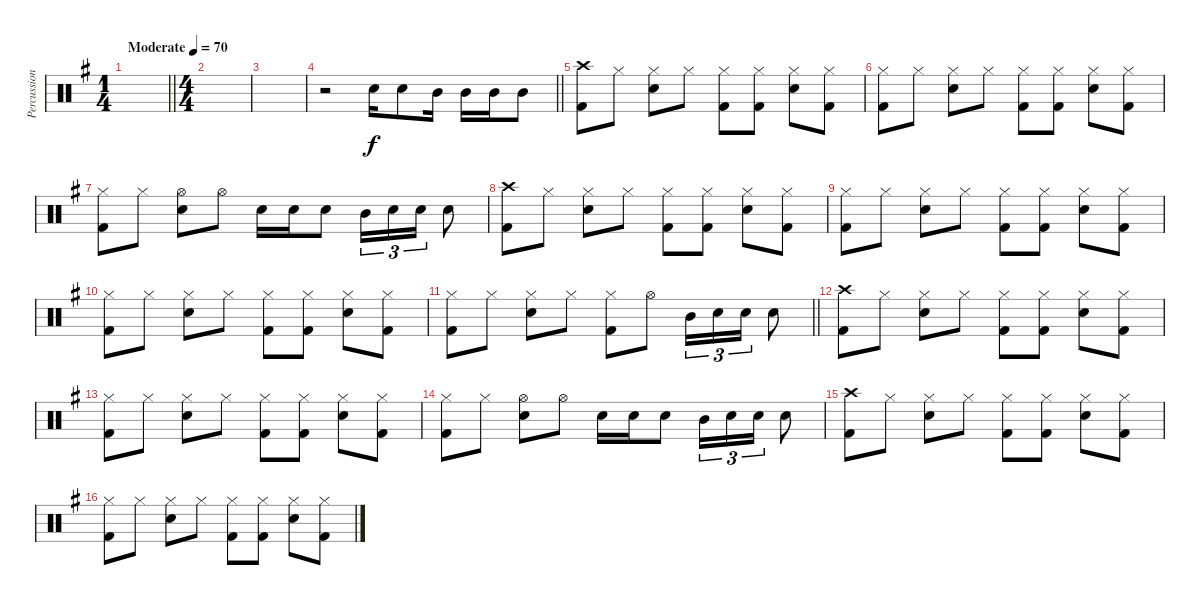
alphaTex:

\track ("Percussion" "Percussion") {instrument percussion}
\staff {score}
\articulation defaults
\ts (1 4)
\tempo (70 "Moderate")
\clef neutral
\barLineRight lightlight
\ks g
|
\ts (4 4)
|
|
\barLineRight lightlight
r.2 "Snare (hit) 2".16 "Snare (hit) 2".8 "Mid Tom (hit)".16 "Mid Tom (hit)".16 "Mid Tom (hit)".16 "Mid Tom (hit)".8 |
("Crash high (hit)" "Kick (hit) 2").8{dy f} "Hi-Hat (closed)".8 ("Hi-Hat (closed)" "Snare (hit) 2").8 "Hi-Hat (closed)".8 ("Hi-Hat (closed)" "Kick (hit) 2").8 ("Hi-Hat (closed)" "Kick (hit) 2").8 ("Hi-Hat (closed)" "Snare (hit) 2").8 ("Hi-Hat (closed)" "Kick (hit) 2").8 |
("Hi-Hat (closed)" "Kick (hit) 2").8 "Hi-Hat (closed)".8 ("Hi-Hat (closed)" "Snare (hit) 2").8 "Hi-Hat (closed)".8 ("Hi-Hat (closed)" "Kick (hit) 2").8 ("Hi-Hat (closed)" "Kick (hit) 2").8 ("Hi-Hat (closed)" "Snare (hit) 2").8 ("Hi-Hat (closed)" "Kick (hit) 2").8 |
("Hi-Hat (closed)" "Kick (hit) 2").8 "Hi-Hat (closed)".8 ("Hi-Hat (open)" "Snare (hit) 2").8 "Hi-Hat (open)".8 "Snare (hit) 2".16 "Snare (hit) 2".16 "Snare (hit) 2".8 "Mid Tom (hit)".16{tu (3 2)} "Snare (hit) 2".16{tu (3 2)} "Snare (hit) 2".16{tu (3 2)} "Snare (hit) 2".8 |
("Crash high (hit)" "Kick (hit) 2").8 "Hi-Hat (closed)".8 ("Hi-Hat (closed)" "Snare (hit) 2").8 "Hi-Hat (closed)".8 ("Hi-Hat (closed)" "Kick (hit) 2").8 ("Hi-Hat (closed)" "Kick (hit) 2").8 ("Hi-Hat (closed)" "Snare (hit) 2").8 ("Hi-Hat (closed)" "Kick (hit) 2").8 |
("Hi-Hat (closed)" "Kick (hit) 2").8 "Hi-Hat (closed)".8 ("Hi-Hat (closed)" "Snare (hit) 2").8 "Hi-Hat (closed)".8 ("Hi-Hat (closed)" "Kick (hit) 2").8 ("Hi-Hat (closed)" "Kick (hit) 2").8 ("Hi-Hat (closed)" "Snare (hit) 2").8 ("Hi-Hat (closed)" "Kick (hit) 2").8 |
("Hi-Hat (closed)" "Kick (hit) 2").8 "Hi-Hat (closed)".8 ("Hi-Hat (closed)" "Snare (hit) 2").8 "Hi-Hat (closed)".8 ("Hi-Hat (closed)" "Kick (hit) 2").8 ("Hi-Hat (closed)" "Kick (hit) 2").8 ("Hi-Hat (closed)" "Snare (hit) 2").8 ("Hi-Hat (closed)" "Kick (hit) 2").8 |
\barLineRight lightlight
("Hi-Hat (closed)" "Kick (hit) 2").8 "Hi-Hat (closed)".8 ("Hi-Hat (closed)" "Snare (hit) 2").8 "Hi-Hat (closed)".8 ("Hi-Hat (closed)" "Kick (hit) 2").8 "Hi-Hat (open)".8 "Mid Tom (hit)".16{tu (3 2)} "Snare (hit) 2".16{tu (3 2)} "Snare (hit) 2".16{tu (3 2)} "Snare (hit) 2".8 |
("Crash high (hit)" "Kick (hit) 2").8 "Hi-Hat (closed)".8 ("Hi-Hat (closed)" "Snare (hit) 2").8 "Hi-Hat (closed)".8 ("Hi-Hat (closed)" "Kick (hit) 2").8 ("Hi-Hat (closed)" "Kick (hit) 2").8 ("Hi-Hat (closed)" "Snare (hit) 2").8 ("Hi-Hat (closed)" "Kick (hit) 2").8 |
("Hi-Hat (closed)" "Kick (hit) 2").8 "Hi-Hat (closed)".8 ("Hi-Hat (closed)" "Snare (hit) 2").8 "Hi-Hat (closed)".8 ("Hi-Hat (closed)" "Kick (hit) 2").8 ("Hi-Hat (closed)" "Kick (hit) 2").8 ("Hi-Hat (closed)" "Snare (hit) 2").8 ("Hi-Hat (closed)" "Kick (hit) 2").8 |
("Hi-Hat (closed)" "Kick (hit) 2").8 "Hi-Hat (closed)".8 ("Hi-Hat (open)" "Snare (hit) 2").8 "Hi-Hat (open)".8 "Snare (hit) 2".16 "Snare (hit) 2".16 "Snare (hit) 2".8 "Mid Tom (hit)".16{tu (3 2)} "Snare (hit) 2".16{tu (3 2)} "Snare (hit) 2".16{tu (3 2)} "Snare (hit) 2".8 |
("Crash high (hit)" "Kick (hit) 2").8 "Hi-Hat (closed)".8 ("Hi-Hat (closed)" "Snare (hit) 2").8 "Hi-Hat (closed)".8 ("Hi-Hat (closed)" "Kick (hit) 2").8 ("Hi-Hat (closed)" "Kick (hit) 2").8 ("Hi-Hat (closed)" "Snare (hit) 2").8 ("Hi-Hat (closed)" "Kick (hit) 2").8 |
("Hi-Hat (closed)" "Kick (hit) 2").8 "Hi-Hat (closed)".8 ("Hi-Hat (closed)" "Snare (hit) 2").8 "Hi-Hat (closed)".8 ("Hi-Hat (closed)" "Kick (hit) 2").8 ("Hi-Hat (closed)" "Kick (hit) 2").8 ("Hi-Hat (closed)" "Snare (hit) 2").8 ("Hi-Hat (closed)" "Kick (hit) 2").8
